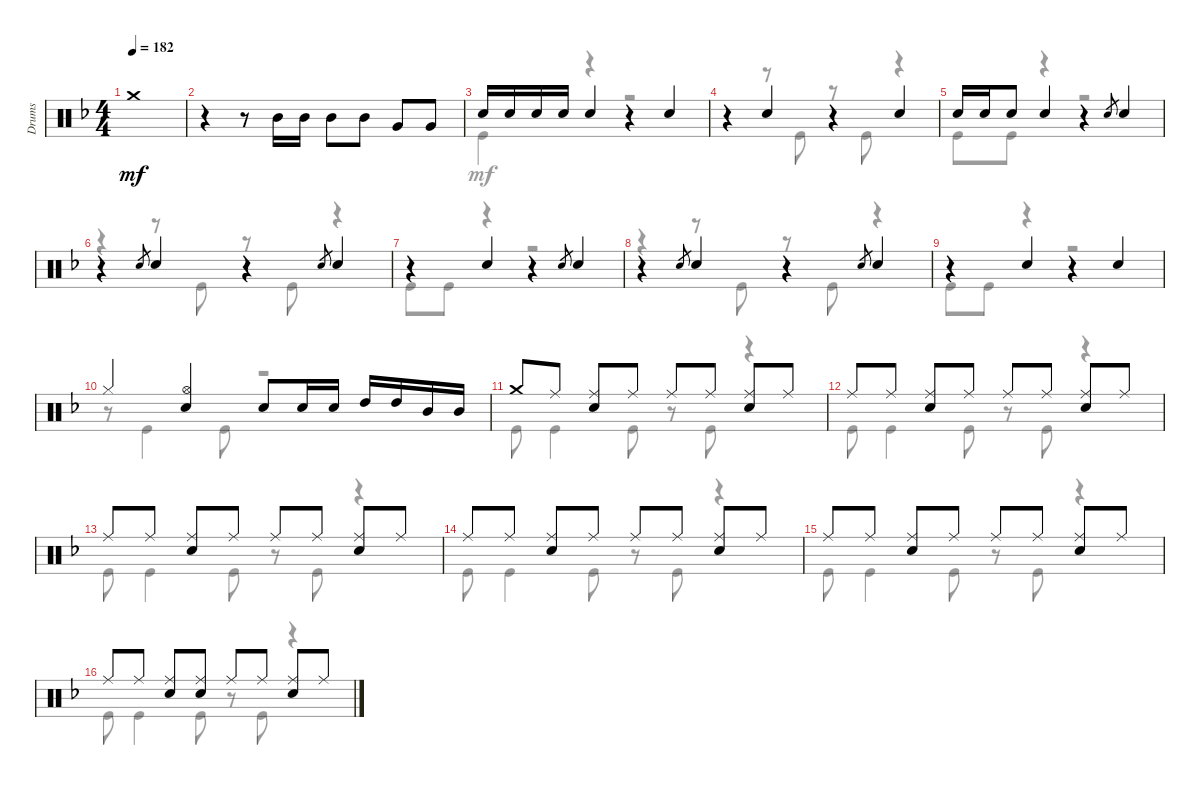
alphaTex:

\track ("Drums" "Drums") {instrument percussion}
\staff {score}
\articulation defaults
\voice
\ts (4 4)
\tempo 182
\clef neutral
\ks f "Crash medium (hit)".1{dy mf}
|
r.4 r.8 "Mid Tom (hit)".16 "Mid Tom (hit)".16 "Mid Tom (hit)".8 "Mid Tom (hit)".8 "Very Low Tom (hit)".8 "Very Low Tom (hit)".8 |
"Snare (hit) 2".16 "Snare (hit) 2".16 "Snare (hit) 2".16 "Snare (hit) 2".16 "Snare (hit) 2".4 r.4 "Snare (hit) 2".4 |
r.4 "Snare (hit) 2".4 r.4 "Snare (hit) 2".4 |
"Snare (hit) 2".16 "Snare (hit) 2".16 "Snare (hit) 2".8 "Snare (hit) 2".4 r.4 "Snare (hit)".8{gr} "Snare (hit) 2".4 |
r.4 "Snare (hit)".8{gr} "Snare (hit) 2".4 r.4 "Snare (hit)".8{gr} "Snare (hit) 2".4 |
r.4 "Snare (hit) 2".4 r.4 "Snare (hit)".8{gr} "Snare (hit) 2".4 |
r.4 "Snare (hit)".8{gr} "Snare (hit) 2".4 r.4 "Snare (hit)".8{gr} "Snare (hit) 2".4 |
r.4 "Snare (hit) 2".4 r.4 "Snare (hit) 2".4 |
"Hi-Hat (closed)".4 ("Hi-Hat (open)" "Snare (hit) 2").4 "Snare (hit) 2".8 "Snare (hit) 2".16 "Snare (hit) 2".16 "High Tom (hit)".16 "High Tom (hit)".16 "Mid Tom (hit)".16 "Mid Tom (hit)".16 |
"Crash medium (hit)".8 "Ride (middle)".8 ("Ride (middle)" "Snare (hit) 2").8 "Ride (middle)".8 "Ride (middle)".8 "Ride (middle)".8 ("Ride (middle)" "Snare (hit) 2").8 "Ride (middle)".8 |
"Ride (middle)".8 "Ride (middle)".8 ("Ride (middle)" "Snare (hit) 2").8 "Ride (middle)".8 "Ride (middle)".8 "Ride (middle)".8 ("Ride (middle)" "Snare (hit) 2").8 "Ride (middle)".8 |
"Ride (middle)".8 "Ride (middle)".8 ("Ride (middle)" "Snare (hit) 2").8 "Ride (middle)".8 "Ride (middle)".8 "Ride (middle)".8 ("Ride (middle)" "Snare (hit) 2").8 "Ride (middle)".8 |
"Ride (middle)".8 "Ride (middle)".8 ("Ride (middle)" "Snare (hit) 2").8 "Ride (middle)".8 "Ride (middle)".8 "Ride (middle)".8 ("Ride (middle)" "Snare (hit) 2").8 "Ride (middle)".8 |
"Ride (middle)".8 "Ride (middle)".8 ("Ride (middle)" "Snare (hit) 2").8 "Ride (middle)".8 "Ride (middle)".8 "Ride (middle)".8 ("Ride (middle)" "Snare (hit) 2").8 "Ride (middle)".8 |
"Ride (middle)".8 "Ride (middle)".8 ("Ride (middle)" "Snare (hit) 2").8 ("Ride (middle)" "Snare (hit) 2").8 "Ride (middle)".8 "Ride (middle)".8 ("Ride (middle)" "Snare (hit) 2").8 "Ride (middle)".8
\voice
\clef neutral
\ottava regular
\simile none
\ks f
|
|
"Kick (hit)".4 r.4 r.2 |
r.4 r.8 "Kick (hit)".8 r.8 "Kick (hit)".8 r.4 |
"Kick (hit)".8 "Kick (hit)".8 r.4 r.2 |
r.4 r.8 "Kick (hit)".8 r.8 "Kick (hit)".8 r.4 |
"Kick (hit)".8 "Kick (hit)".8 r.4 r.2 |
r.4 r.8 "Kick (hit)".8 r.8 "Kick (hit)".8 r.4 |
"Kick (hit)".8 "Kick (hit)".8 r.4 r.2 |
r.8 "Kick (hit)".4 "Kick (hit)".8 r.2 |
"Kick (hit)".8 "Kick (hit)".4 "Kick (hit)".8 r.8 "Kick (hit)".8 r.4 |
"Kick (hit)".8 "Kick (hit)".4 "Kick (hit)".8 r.8 "Kick (hit)".8 r.4 |
"Kick (hit)".8 "Kick (hit)".4 "Kick (hit)".8 r.8 "Kick (hit)".8 r.4 |
"Kick (hit)".8 "Kick (hit)".4 "Kick (hit)".8 r.8 "Kick (hit)".8 r.4 |
"Kick (hit)".8 "Kick (hit)".4 "Kick (hit)".8 r.8 "Kick (hit)".8 r.4 |
"Kick (hit)".8 "Kick (hit)".4 "Kick (hit)".8 r.8 "Kick (hit)".8 r.4
